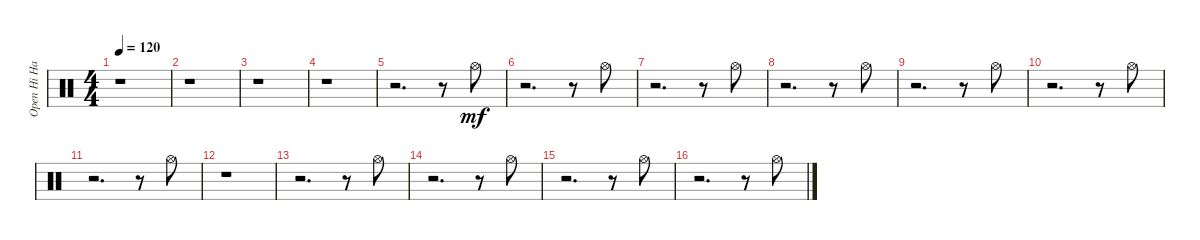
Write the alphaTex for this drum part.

\track ("Open Hi Hat" "Open Hi Ha") {instrument percussion}
\staff {score}
\articulation defaults
\ts (4 4)
\tempo 120
\clef neutral
\ks c
r.1{dy mf} |
r.1 |
r.1 |
r.1 |
r.2{d} r.8 "Hi-Hat (open)".8 |
r.2{d} r.8 "Hi-Hat (open)".8 |
r.2{d} r.8 "Hi-Hat (open)".8 |
r.2{d} r.8 "Hi-Hat (open)".8 |
r.2{d} r.8 "Hi-Hat (open)".8 |
r.2{d} r.8 "Hi-Hat (open)".8 |
r.2{d} r.8 "Hi-Hat (open)".8 |
r.1 |
r.2{d} r.8 "Hi-Hat (open)".8 |
r.2{d} r.8 "Hi-Hat (open)".8 |
r.2{d} r.8 "Hi-Hat (open)".8 |
r.2{d} r.8 "Hi-Hat (open)".8
